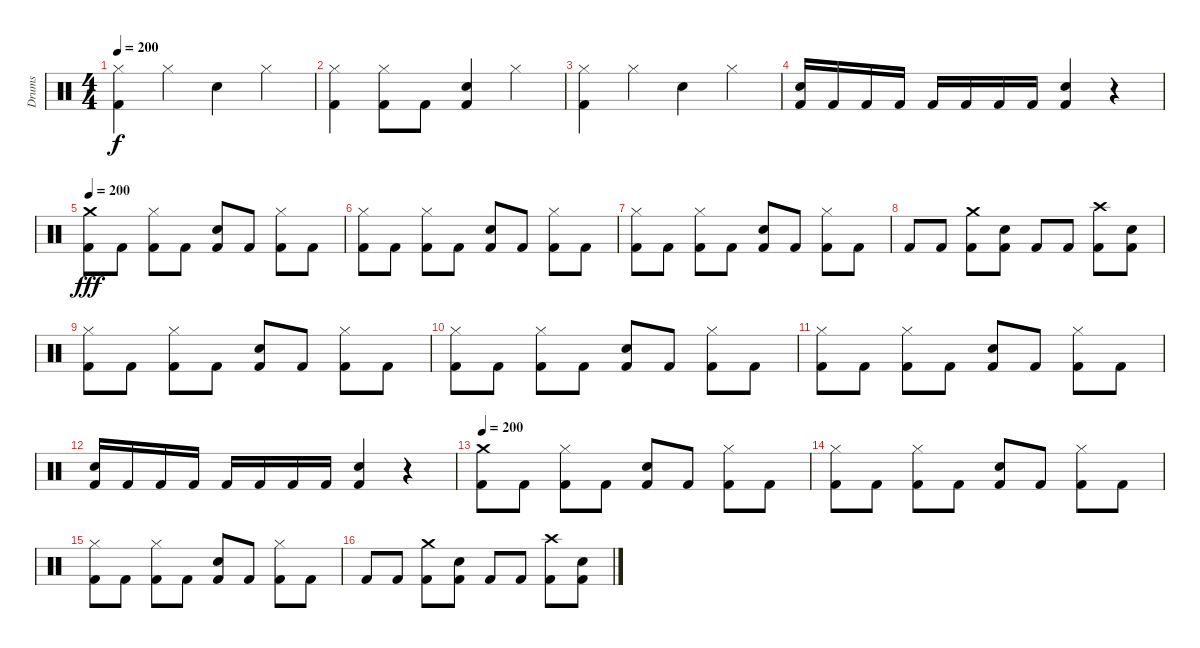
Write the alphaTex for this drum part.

\track ("Drums" "Drums") {instrument percussion}
\staff {score}
\articulation defaults
\ts (4 4)
\tempo 200
\clef neutral
\ks c
("Hi-Hat (closed)" "Kick (hit) 2").4{dy f} "Hi-Hat (closed)".4 "Electric Snare (hit)".4 "Hi-Hat (closed)".4 |
("Hi-Hat (closed)" "Kick (hit) 2").4 ("Hi-Hat (closed)" "Kick (hit) 2").8 "Kick (hit) 2".8 ("Electric Snare (hit)" "Kick (hit) 2").4 "Hi-Hat (closed)".4 |
("Hi-Hat (closed)" "Kick (hit) 2").4 "Hi-Hat (closed)".4 "Electric Snare (hit)".4 "Hi-Hat (closed)".4 |
("Electric Snare (hit)" "Kick (hit) 2").16 "Kick (hit) 2".16 "Kick (hit) 2".16 "Kick (hit) 2".16 "Kick (hit) 2".16 "Kick (hit) 2".16 "Kick (hit) 2".16 "Kick (hit) 2".16 ("Electric Snare (hit)" "Kick (hit) 2").4 r.4 |
\tempo 200
("Crash medium (hit)" "Kick (hit) 2").8{dy fff} "Kick (hit) 2".8 ("Hi-Hat (closed)" "Kick (hit) 2").8 "Kick (hit) 2".8 ("Electric Snare (hit)" "Kick (hit) 2").8 "Kick (hit) 2".8 ("Hi-Hat (closed)" "Kick (hit) 2").8 "Kick (hit) 2".8 |
("Hi-Hat (closed)" "Kick (hit) 2").8 "Kick (hit) 2".8 ("Hi-Hat (closed)" "Kick (hit) 2").8 "Kick (hit) 2".8 ("Electric Snare (hit)" "Kick (hit) 2").8 "Kick (hit) 2".8 ("Hi-Hat (closed)" "Kick (hit) 2").8 "Kick (hit) 2".8 |
("Hi-Hat (closed)" "Kick (hit) 2").8 "Kick (hit) 2".8 ("Hi-Hat (closed)" "Kick (hit) 2").8 "Kick (hit) 2".8 ("Electric Snare (hit)" "Kick (hit) 2").8 "Kick (hit) 2".8 ("Hi-Hat (closed)" "Kick (hit) 2").8 "Kick (hit) 2".8 |
"Kick (hit) 2".8 "Kick (hit) 2".8 ("Crash medium (hit)" "Kick (hit) 2").8 ("Electric Snare (hit)" "Kick (hit) 2").8 "Kick (hit) 2".8 "Kick (hit) 2".8 ("Crash high (hit)" "Kick (hit) 2").8 ("Electric Snare (hit)" "Kick (hit) 2").8 |
("Hi-Hat (closed)" "Kick (hit) 2").8 "Kick (hit) 2".8 ("Hi-Hat (closed)" "Kick (hit) 2").8 "Kick (hit) 2".8 ("Electric Snare (hit)" "Kick (hit) 2").8 "Kick (hit) 2".8 ("Hi-Hat (closed)" "Kick (hit) 2").8 "Kick (hit) 2".8 |
("Hi-Hat (closed)" "Kick (hit) 2").8 "Kick (hit) 2".8 ("Hi-Hat (closed)" "Kick (hit) 2").8 "Kick (hit) 2".8 ("Electric Snare (hit)" "Kick (hit) 2").8 "Kick (hit) 2".8 ("Hi-Hat (closed)" "Kick (hit) 2").8 "Kick (hit) 2".8 |
("Hi-Hat (closed)" "Kick (hit) 2").8 "Kick (hit) 2".8 ("Hi-Hat (closed)" "Kick (hit) 2").8 "Kick (hit) 2".8 ("Electric Snare (hit)" "Kick (hit) 2").8 "Kick (hit) 2".8 ("Hi-Hat (closed)" "Kick (hit) 2").8 "Kick (hit) 2".8 |
("Electric Snare (hit)" "Kick (hit) 2").16 "Kick (hit) 2".16 "Kick (hit) 2".16 "Kick (hit) 2".16 "Kick (hit) 2".16 "Kick (hit) 2".16 "Kick (hit) 2".16 "Kick (hit) 2".16 ("Electric Snare (hit)" "Kick (hit) 2").4 r.4 |
\tempo 200
("Crash medium (hit)" "Kick (hit) 2").8 "Kick (hit) 2".8 ("Hi-Hat (closed)" "Kick (hit) 2").8 "Kick (hit) 2".8 ("Electric Snare (hit)" "Kick (hit) 2").8 "Kick (hit) 2".8 ("Hi-Hat (closed)" "Kick (hit) 2").8 "Kick (hit) 2".8 |
("Hi-Hat (closed)" "Kick (hit) 2").8 "Kick (hit) 2".8 ("Hi-Hat (closed)" "Kick (hit) 2").8 "Kick (hit) 2".8 ("Electric Snare (hit)" "Kick (hit) 2").8 "Kick (hit) 2".8 ("Hi-Hat (closed)" "Kick (hit) 2").8 "Kick (hit) 2".8 |
("Hi-Hat (closed)" "Kick (hit) 2").8 "Kick (hit) 2".8 ("Hi-Hat (closed)" "Kick (hit) 2").8 "Kick (hit) 2".8 ("Electric Snare (hit)" "Kick (hit) 2").8 "Kick (hit) 2".8 ("Hi-Hat (closed)" "Kick (hit) 2").8 "Kick (hit) 2".8 |
"Kick (hit) 2".8 "Kick (hit) 2".8 ("Crash medium (hit)" "Kick (hit) 2").8 ("Electric Snare (hit)" "Kick (hit) 2").8 "Kick (hit) 2".8 "Kick (hit) 2".8 ("Crash high (hit)" "Kick (hit) 2").8 ("Electric Snare (hit)" "Kick (hit) 2").8
